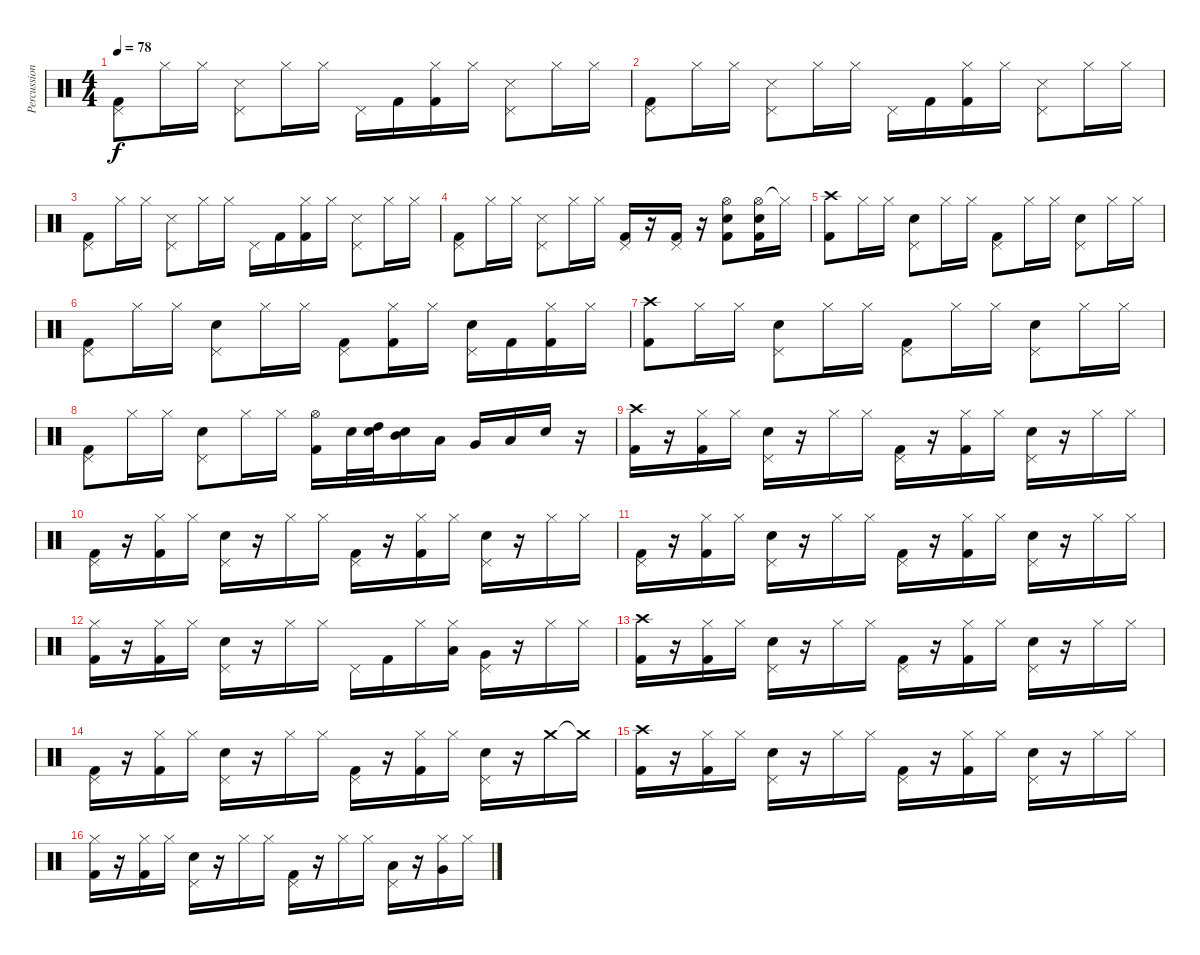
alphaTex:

\track ("Percussion" "Percussion") {instrument percussion}
\staff {score}
\articulation defaults
\ts (4 4)
\tempo 78
\clef neutral
\ks c
("Pedal Hi-Hat (hit)" "Kick (hit) 2").8{dy f} "Hi-Hat (closed)".16 "Hi-Hat (closed)".16 ("Pedal Hi-Hat (hit)" "Metronome (hit)").8 "Hi-Hat (closed)".16 "Hi-Hat (closed)".16 "Pedal Hi-Hat (hit)".16 "Kick (hit) 2".16 ("Hi-Hat (closed)" "Kick (hit) 2").16 "Hi-Hat (closed)".16 ("Pedal Hi-Hat (hit)" "Metronome (hit)").8 "Hi-Hat (closed)".16 "Hi-Hat (closed)".16 |
("Pedal Hi-Hat (hit)" "Kick (hit) 2").8 "Hi-Hat (closed)".16 "Hi-Hat (closed)".16 ("Pedal Hi-Hat (hit)" "Metronome (hit)").8 "Hi-Hat (closed)".16 "Hi-Hat (closed)".16 "Pedal Hi-Hat (hit)".16 "Kick (hit) 2".16 ("Hi-Hat (closed)" "Kick (hit) 2").16 "Hi-Hat (closed)".16 ("Pedal Hi-Hat (hit)" "Metronome (hit)").8 "Hi-Hat (closed)".16 "Hi-Hat (closed)".16 |
("Pedal Hi-Hat (hit)" "Kick (hit) 2").8 "Hi-Hat (closed)".16 "Hi-Hat (closed)".16 ("Pedal Hi-Hat (hit)" "Metronome (hit)").8 "Hi-Hat (closed)".16 "Hi-Hat (closed)".16 "Pedal Hi-Hat (hit)".16 "Kick (hit) 2".16 ("Hi-Hat (closed)" "Kick (hit) 2").16 "Hi-Hat (closed)".16 ("Pedal Hi-Hat (hit)" "Metronome (hit)").8 "Hi-Hat (closed)".16 "Hi-Hat (closed)".16 |
("Pedal Hi-Hat (hit)" "Kick (hit) 2").8 "Hi-Hat (closed)".16 "Hi-Hat (closed)".16 ("Pedal Hi-Hat (hit)" "Metronome (hit)").8 "Hi-Hat (closed)".16 "Hi-Hat (closed)".16 ("Pedal Hi-Hat (hit)" "Kick (hit) 2").16 r.16 ("Pedal Hi-Hat (hit)" "Kick (hit) 2").16 r.16 ("Hi-Hat (open)" "Electric Snare (hit)" "Kick (hit) 2").8 ("Hi-Hat (open)" "Electric Snare (hit)" "Kick (hit) 2").16 "Hi-Hat (closed)"{t}.16 |
("Crash high (hit)" "Kick (hit) 2").8 "Hi-Hat (closed)".16 "Hi-Hat (closed)".16 ("Pedal Hi-Hat (hit)" "Electric Snare (hit)").8 "Hi-Hat (closed)".16 "Hi-Hat (closed)".16 ("Pedal Hi-Hat (hit)" "Kick (hit) 2").8 "Hi-Hat (closed)".16 "Hi-Hat (closed)".16 ("Pedal Hi-Hat (hit)" "Electric Snare (hit)").8 "Hi-Hat (closed)".16 "Hi-Hat (closed)".16 |
("Pedal Hi-Hat (hit)" "Kick (hit) 2").8 "Hi-Hat (closed)".16 "Hi-Hat (closed)".16 ("Pedal Hi-Hat (hit)" "Electric Snare (hit)").8 "Hi-Hat (closed)".16 "Hi-Hat (closed)".16 ("Pedal Hi-Hat (hit)" "Kick (hit) 2").8 ("Hi-Hat (closed)" "Kick (hit) 2").16 "Hi-Hat (closed)".16 ("Pedal Hi-Hat (hit)" "Electric Snare (hit)").16 "Kick (hit) 2".16 ("Hi-Hat (closed)" "Kick (hit) 2").16 "Hi-Hat (closed)".16 |
("Crash high (hit)" "Kick (hit) 2").8 "Hi-Hat (closed)".16 "Hi-Hat (closed)".16 ("Pedal Hi-Hat (hit)" "Electric Snare (hit)").8 "Hi-Hat (closed)".16 "Hi-Hat (closed)".16 ("Pedal Hi-Hat (hit)" "Kick (hit) 2").8 "Hi-Hat (closed)".16 "Hi-Hat (closed)".16 ("Pedal Hi-Hat (hit)" "Electric Snare (hit)").8 "Hi-Hat (closed)".16 "Hi-Hat (closed)".16 |
("Pedal Hi-Hat (hit)" "Kick (hit) 2").8 "Hi-Hat (closed)".16 "Hi-Hat (closed)".16 ("Pedal Hi-Hat (hit)" "Electric Snare (hit)").8 "Hi-Hat (closed)".16 "Hi-Hat (closed)".16 ("Hi-Hat (open)" "Kick (hit) 2").16 "Electric Snare (hit)".32 ("Electric Snare (hit)" "High Tom (hit)").32 ("Electric Snare (hit)" "Mid Tom (hit)").16 "Low Tom (hit)".16 "Very Low Tom (hit)".16 "Low Floor Tom (hit)".16 "Electric Snare (hit)".16 r.16 |
("Crash high (hit)" "Kick (hit) 2").16 r.16 ("Hi-Hat (closed)" "Kick (hit) 2").16 "Hi-Hat (closed)".16 ("Pedal Hi-Hat (hit)" "Electric Snare (hit)").16 r.16 "Hi-Hat (closed)".16 "Hi-Hat (closed)".16 ("Pedal Hi-Hat (hit)" "Kick (hit) 2").16 r.16 ("Hi-Hat (closed)" "Kick (hit) 2").16 "Hi-Hat (closed)".16 ("Pedal Hi-Hat (hit)" "Electric Snare (hit)").16 r.16 "Hi-Hat (closed)".16 "Hi-Hat (closed)".16 |
("Pedal Hi-Hat (hit)" "Kick (hit) 2").16 r.16 ("Hi-Hat (closed)" "Kick (hit) 2").16 "Hi-Hat (closed)".16 ("Pedal Hi-Hat (hit)" "Electric Snare (hit)").16 r.16 "Hi-Hat (closed)".16 "Hi-Hat (closed)".16 ("Pedal Hi-Hat (hit)" "Kick (hit) 2").16 r.16 ("Hi-Hat (closed)" "Kick (hit) 2").16 "Hi-Hat (closed)".16 ("Pedal Hi-Hat (hit)" "Electric Snare (hit)").16 r.16 "Hi-Hat (closed)".16 "Hi-Hat (closed)".16 |
("Pedal Hi-Hat (hit)" "Kick (hit) 2").16 r.16 ("Hi-Hat (closed)" "Kick (hit) 2").16 "Hi-Hat (closed)".16 ("Pedal Hi-Hat (hit)" "Electric Snare (hit)").16 r.16 "Hi-Hat (closed)".16 "Hi-Hat (closed)".16 ("Pedal Hi-Hat (hit)" "Kick (hit) 2").16 r.16 ("Hi-Hat (closed)" "Kick (hit) 2").16 "Hi-Hat (closed)".16 ("Pedal Hi-Hat (hit)" "Electric Snare (hit)").16 r.16 "Hi-Hat (closed)".16 "Hi-Hat (closed)".16 |
("Hi-Hat (closed)" "Kick (hit) 2").16 r.16 ("Hi-Hat (closed)" "Kick (hit) 2").16 "Hi-Hat (closed)".16 ("Pedal Hi-Hat (hit)" "Electric Snare (hit)").16 r.16 "Hi-Hat (closed)".16 "Hi-Hat (closed)".16 "Pedal Hi-Hat (hit)".16 "Kick (hit) 2".16 "Hi-Hat (closed)".16 ("Hi-Hat (closed)" "Low Tom (hit)").16 ("Pedal Hi-Hat (hit)" "Very Low Tom (hit)").16 r.16 "Hi-Hat (closed)".16 "Hi-Hat (closed)".16 |
("Crash high (hit)" "Kick (hit) 2").16 r.16 ("Hi-Hat (closed)" "Kick (hit) 2").16 "Hi-Hat (closed)".16 ("Pedal Hi-Hat (hit)" "Electric Snare (hit)").16 r.16 "Hi-Hat (closed)".16 "Hi-Hat (closed)".16 ("Pedal Hi-Hat (hit)" "Kick (hit) 2").16 r.16 ("Hi-Hat (closed)" "Kick (hit) 2").16 "Hi-Hat (closed)".16 ("Pedal Hi-Hat (hit)" "Electric Snare (hit)").16 r.16 "Hi-Hat (closed)".16 "Hi-Hat (closed)".16 |
("Pedal Hi-Hat (hit)" "Kick (hit) 2").16 r.16 ("Hi-Hat (closed)" "Kick (hit) 2").16 "Hi-Hat (closed)".16 ("Pedal Hi-Hat (hit)" "Electric Snare (hit)").16 r.16 "Hi-Hat (closed)".16 "Hi-Hat (closed)".16 ("Pedal Hi-Hat (hit)" "Kick (hit) 2").16 r.16 ("Hi-Hat (closed)" "Kick (hit) 2").16 "Hi-Hat (closed)".16 ("Pedal Hi-Hat (hit)" "Electric Snare (hit)").16 r.16 "Crash medium (hit)".16 "Crash medium (hit)"{t}.16 |
("Crash high (hit)" "Kick (hit) 2").16 r.16 ("Hi-Hat (closed)" "Kick (hit) 2").16 "Hi-Hat (closed)".16 ("Pedal Hi-Hat (hit)" "Electric Snare (hit)").16 r.16 "Hi-Hat (closed)".16 "Hi-Hat (closed)".16 ("Pedal Hi-Hat (hit)" "Kick (hit) 2").16 r.16 ("Hi-Hat (closed)" "Kick (hit) 2").16 "Hi-Hat (closed)".16 ("Pedal Hi-Hat (hit)" "Electric Snare (hit)").16 r.16 "Hi-Hat (closed)".16 "Hi-Hat (closed)".16 |
("Hi-Hat (closed)" "Kick (hit) 2").16 r.16 ("Hi-Hat (closed)" "Kick (hit) 2").16 "Hi-Hat (closed)".16 ("Pedal Hi-Hat (hit)" "Electric Snare (hit)").16 r.16 "Hi-Hat (closed)".16 "Hi-Hat (closed)".16 ("Pedal Hi-Hat (hit)" "Kick (hit) 2").16 r.16 "Hi-Hat (closed)".16 "Hi-Hat (closed)".16 ("Pedal Hi-Hat (hit)" "Low Tom (hit)").16 r.16 ("Hi-Hat (closed)" "Very Low Tom (hit)").16 "Hi-Hat (closed)".16
